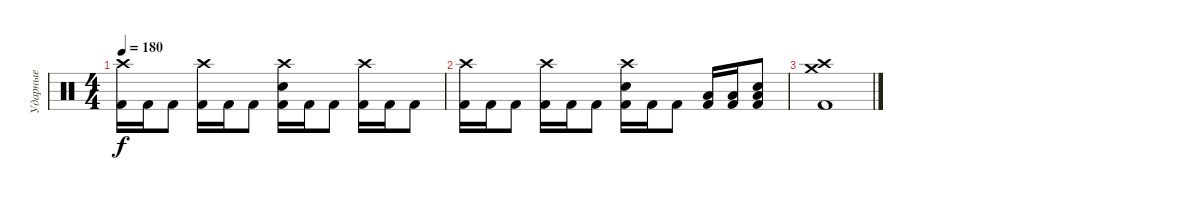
\track ("Ударные" "Ударные") {instrument percussion}
\staff {score}
\articulation defaults
\ts (4 4)
\tempo 180
\clef neutral
\ks c
("Crash high (hit)" "Kick (hit) 2").16{dy f} "Kick (hit) 2".16 "Kick (hit) 2".8 ("Crash high (hit)" "Kick (hit) 2").16 "Kick (hit) 2".16 "Kick (hit) 2".8 ("Crash high (hit)" "Electric Snare (hit)" "Kick (hit) 2").16 "Kick (hit) 2".16 "Kick (hit) 2".8 ("Crash high (hit)" "Kick (hit) 2").16 "Kick (hit) 2".16 "Kick (hit) 2".8 |
("Crash high (hit)" "Kick (hit) 2").16 "Kick (hit) 2".16 "Kick (hit) 2".8 ("Crash high (hit)" "Kick (hit) 2").16 "Kick (hit) 2".16 "Kick (hit) 2".8 ("Crash high (hit)" "Electric Snare (hit)" "Kick (hit) 2").16 "Kick (hit) 2".16 "Kick (hit) 2".8 ("Low Tom (hit)" "Kick (hit) 2").16 ("Low Tom (hit)" "Kick (hit) 2").16 ("Low Floor Tom (hit)" "Electric Snare (hit)" "Kick (hit) 2").8 |
("Crash medium (hit)" "Crash high (hit)" "Kick (hit) 2").1
